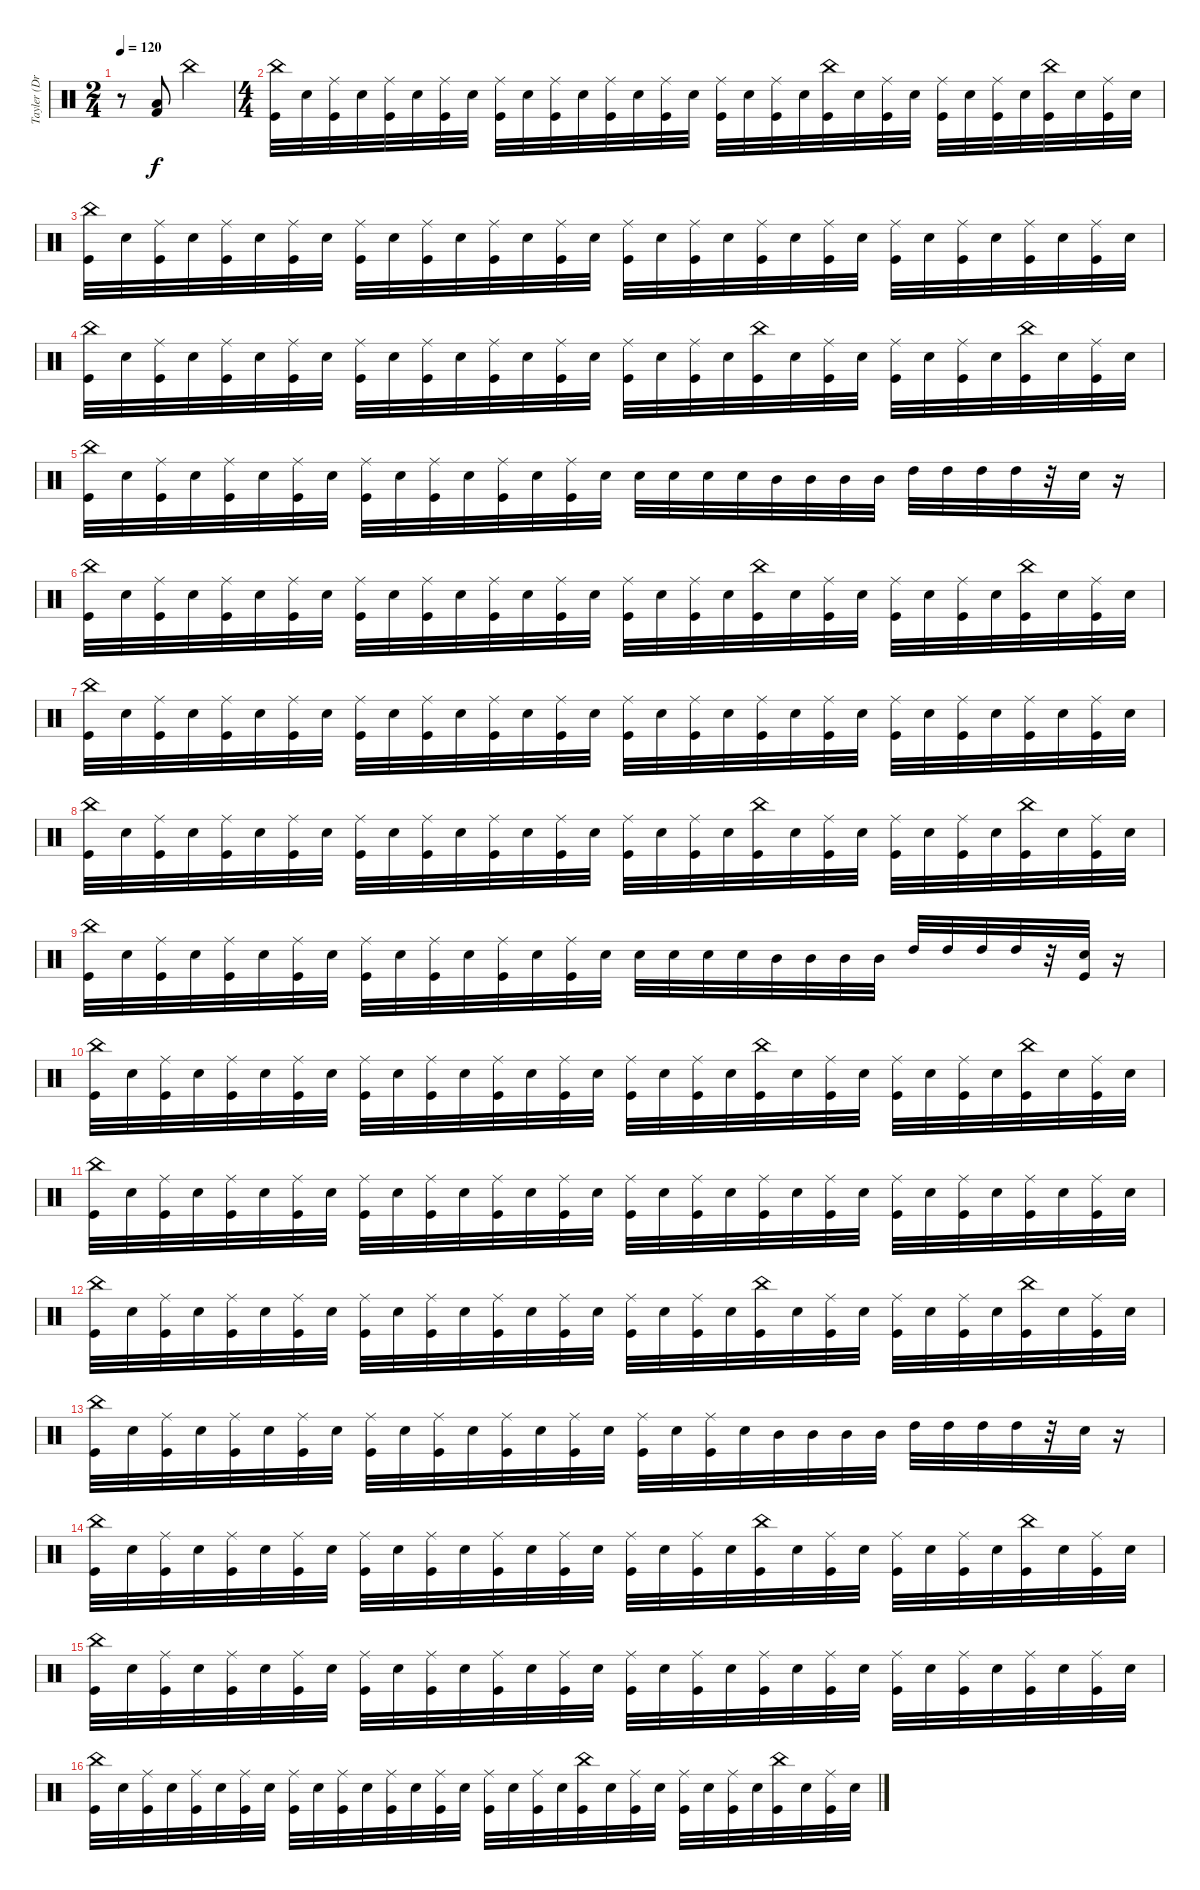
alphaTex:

\track ("Tayler (Drums)" "Tayler (Dr") {instrument percussion}
\staff {score}
\articulation defaults
\ts (2 4)
\tempo 120
\clef neutral
\ks c
r.8{dy f} ("Low Tom (hit)" "Kick (hit) 2").8 "China (hit)".4 |
\ts (4 4)
("China (hit)" "Kick (hit)").32 "Electric Snare (hit)".32 ("Ride (middle)" "Kick (hit)").32 "Electric Snare (hit)".32 ("Ride (middle)" "Kick (hit)").32 "Electric Snare (hit)".32 ("Ride (middle)" "Kick (hit)").32 "Electric Snare (hit)".32 ("Ride (middle)" "Kick (hit)").32 "Electric Snare (hit)".32 ("Ride (middle)" "Kick (hit)").32 "Electric Snare (hit)".32 ("Ride (middle)" "Kick (hit)").32 "Electric Snare (hit)".32 ("Ride (middle)" "Kick (hit)").32 "Electric Snare (hit)".32 ("Ride (middle)" "Kick (hit)").32 "Electric Snare (hit)".32 ("Ride (middle)" "Kick (hit)").32 "Electric Snare (hit)".32 ("China (hit)" "Kick (hit)").32 "Electric Snare (hit)".32 ("Ride (middle)" "Kick (hit)").32 "Electric Snare (hit)".32 ("Ride (middle)" "Kick (hit)").32 "Electric Snare (hit)".32 ("Ride (middle)" "Kick (hit)").32 "Electric Snare (hit)".32 ("China (hit)" "Kick (hit)").32 "Electric Snare (hit)".32 ("Ride (middle)" "Kick (hit)").32 "Electric Snare (hit)".32 |
("China (hit)" "Kick (hit)").32 "Electric Snare (hit)".32 ("Ride (middle)" "Kick (hit)").32 "Electric Snare (hit)".32 ("Ride (middle)" "Kick (hit)").32 "Electric Snare (hit)".32 ("Ride (middle)" "Kick (hit)").32 "Electric Snare (hit)".32 ("Ride (middle)" "Kick (hit)").32 "Electric Snare (hit)".32 ("Ride (middle)" "Kick (hit)").32 "Electric Snare (hit)".32 ("Ride (middle)" "Kick (hit)").32 "Electric Snare (hit)".32 ("Ride (middle)" "Kick (hit)").32 "Electric Snare (hit)".32 ("Ride (middle)" "Kick (hit)").32 "Electric Snare (hit)".32 ("Ride (middle)" "Kick (hit)").32 "Electric Snare (hit)".32 ("Ride (middle)" "Kick (hit)").32 "Electric Snare (hit)".32 ("Ride (middle)" "Kick (hit)").32 "Electric Snare (hit)".32 ("Ride (middle)" "Kick (hit)").32 "Electric Snare (hit)".32 ("Ride (middle)" "Kick (hit)").32 "Electric Snare (hit)".32 ("Ride (middle)" "Kick (hit)").32 "Electric Snare (hit)".32 ("Ride (middle)" "Kick (hit)").32 "Electric Snare (hit)".32 |
("China (hit)" "Kick (hit)").32 "Electric Snare (hit)".32 ("Ride (middle)" "Kick (hit)").32 "Electric Snare (hit)".32 ("Ride (middle)" "Kick (hit)").32 "Electric Snare (hit)".32 ("Ride (middle)" "Kick (hit)").32 "Electric Snare (hit)".32 ("Ride (middle)" "Kick (hit)").32 "Electric Snare (hit)".32 ("Ride (middle)" "Kick (hit)").32 "Electric Snare (hit)".32 ("Ride (middle)" "Kick (hit)").32 "Electric Snare (hit)".32 ("Ride (middle)" "Kick (hit)").32 "Electric Snare (hit)".32 ("Ride (middle)" "Kick (hit)").32 "Electric Snare (hit)".32 ("Ride (middle)" "Kick (hit)").32 "Electric Snare (hit)".32 ("China (hit)" "Kick (hit)").32 "Electric Snare (hit)".32 ("Ride (middle)" "Kick (hit)").32 "Electric Snare (hit)".32 ("Ride (middle)" "Kick (hit)").32 "Electric Snare (hit)".32 ("Ride (middle)" "Kick (hit)").32 "Electric Snare (hit)".32 ("China (hit)" "Kick (hit)").32 "Electric Snare (hit)".32 ("Ride (middle)" "Kick (hit)").32 "Electric Snare (hit)".32 |
("China (hit)" "Kick (hit)").32 "Electric Snare (hit)".32 ("Ride (middle)" "Kick (hit)").32 "Electric Snare (hit)".32 ("Ride (middle)" "Kick (hit)").32 "Electric Snare (hit)".32 ("Ride (middle)" "Kick (hit)").32 "Electric Snare (hit)".32 ("Ride (middle)" "Kick (hit)").32 "Electric Snare (hit)".32 ("Ride (middle)" "Kick (hit)").32 "Electric Snare (hit)".32 ("Ride (middle)" "Kick (hit)").32 "Electric Snare (hit)".32 ("Ride (middle)" "Kick (hit)").32 "Electric Snare (hit)".32 "Electric Snare (hit)".32 "Electric Snare (hit)".32 "Electric Snare (hit)".32 "Electric Snare (hit)".32 "Mid Tom (hit)".32 "Mid Tom (hit)".32 "Mid Tom (hit)".32 "Mid Tom (hit)".32 "High Tom (hit)".32 "High Tom (hit)".32 "High Tom (hit)".32 "High Tom (hit)".32 r.32 "Electric Snare (hit)".32 r.16 |
("China (hit)" "Kick (hit)").32 "Electric Snare (hit)".32 ("Ride (middle)" "Kick (hit)").32 "Electric Snare (hit)".32 ("Ride (middle)" "Kick (hit)").32 "Electric Snare (hit)".32 ("Ride (middle)" "Kick (hit)").32 "Electric Snare (hit)".32 ("Ride (middle)" "Kick (hit)").32 "Electric Snare (hit)".32 ("Ride (middle)" "Kick (hit)").32 "Electric Snare (hit)".32 ("Ride (middle)" "Kick (hit)").32 "Electric Snare (hit)".32 ("Ride (middle)" "Kick (hit)").32 "Electric Snare (hit)".32 ("Ride (middle)" "Kick (hit)").32 "Electric Snare (hit)".32 ("Ride (middle)" "Kick (hit)").32 "Electric Snare (hit)".32 ("China (hit)" "Kick (hit)").32 "Electric Snare (hit)".32 ("Ride (middle)" "Kick (hit)").32 "Electric Snare (hit)".32 ("Ride (middle)" "Kick (hit)").32 "Electric Snare (hit)".32 ("Ride (middle)" "Kick (hit)").32 "Electric Snare (hit)".32 ("China (hit)" "Kick (hit)").32 "Electric Snare (hit)".32 ("Ride (middle)" "Kick (hit)").32 "Electric Snare (hit)".32 |
("China (hit)" "Kick (hit)").32 "Electric Snare (hit)".32 ("Ride (middle)" "Kick (hit)").32 "Electric Snare (hit)".32 ("Ride (middle)" "Kick (hit)").32 "Electric Snare (hit)".32 ("Ride (middle)" "Kick (hit)").32 "Electric Snare (hit)".32 ("Ride (middle)" "Kick (hit)").32 "Electric Snare (hit)".32 ("Ride (middle)" "Kick (hit)").32 "Electric Snare (hit)".32 ("Ride (middle)" "Kick (hit)").32 "Electric Snare (hit)".32 ("Ride (middle)" "Kick (hit)").32 "Electric Snare (hit)".32 ("Ride (middle)" "Kick (hit)").32 "Electric Snare (hit)".32 ("Ride (middle)" "Kick (hit)").32 "Electric Snare (hit)".32 ("Ride (middle)" "Kick (hit)").32 "Electric Snare (hit)".32 ("Ride (middle)" "Kick (hit)").32 "Electric Snare (hit)".32 ("Ride (middle)" "Kick (hit)").32 "Electric Snare (hit)".32 ("Ride (middle)" "Kick (hit)").32 "Electric Snare (hit)".32 ("Ride (middle)" "Kick (hit)").32 "Electric Snare (hit)".32 ("Ride (middle)" "Kick (hit)").32 "Electric Snare (hit)".32 |
("China (hit)" "Kick (hit)").32 "Electric Snare (hit)".32 ("Ride (middle)" "Kick (hit)").32 "Electric Snare (hit)".32 ("Ride (middle)" "Kick (hit)").32 "Electric Snare (hit)".32 ("Ride (middle)" "Kick (hit)").32 "Electric Snare (hit)".32 ("Ride (middle)" "Kick (hit)").32 "Electric Snare (hit)".32 ("Ride (middle)" "Kick (hit)").32 "Electric Snare (hit)".32 ("Ride (middle)" "Kick (hit)").32 "Electric Snare (hit)".32 ("Ride (middle)" "Kick (hit)").32 "Electric Snare (hit)".32 ("Ride (middle)" "Kick (hit)").32 "Electric Snare (hit)".32 ("Ride (middle)" "Kick (hit)").32 "Electric Snare (hit)".32 ("China (hit)" "Kick (hit)").32 "Electric Snare (hit)".32 ("Ride (middle)" "Kick (hit)").32 "Electric Snare (hit)".32 ("Ride (middle)" "Kick (hit)").32 "Electric Snare (hit)".32 ("Ride (middle)" "Kick (hit)").32 "Electric Snare (hit)".32 ("China (hit)" "Kick (hit)").32 "Electric Snare (hit)".32 ("Ride (middle)" "Kick (hit)").32 "Electric Snare (hit)".32 |
("China (hit)" "Kick (hit)").32 "Electric Snare (hit)".32 ("Ride (middle)" "Kick (hit)").32 "Electric Snare (hit)".32 ("Ride (middle)" "Kick (hit)").32 "Electric Snare (hit)".32 ("Ride (middle)" "Kick (hit)").32 "Electric Snare (hit)".32 ("Ride (middle)" "Kick (hit)").32 "Electric Snare (hit)".32 ("Ride (middle)" "Kick (hit)").32 "Electric Snare (hit)".32 ("Ride (middle)" "Kick (hit)").32 "Electric Snare (hit)".32 ("Ride (middle)" "Kick (hit)").32 "Electric Snare (hit)".32 "Electric Snare (hit)".32 "Electric Snare (hit)".32 "Electric Snare (hit)".32 "Electric Snare (hit)".32 "Mid Tom (hit)".32 "Mid Tom (hit)".32 "Mid Tom (hit)".32 "Mid Tom (hit)".32 "High Tom (hit)".32 "High Tom (hit)".32 "High Tom (hit)".32 "High Tom (hit)".32 r.32 ("Electric Snare (hit)" "Kick (hit)").32 r.16 |
("China (hit)" "Kick (hit)").32 "Electric Snare (hit)".32 ("Ride (middle)" "Kick (hit)").32 "Electric Snare (hit)".32 ("Ride (middle)" "Kick (hit)").32 "Electric Snare (hit)".32 ("Ride (middle)" "Kick (hit)").32 "Electric Snare (hit)".32 ("Ride (middle)" "Kick (hit)").32 "Electric Snare (hit)".32 ("Ride (middle)" "Kick (hit)").32 "Electric Snare (hit)".32 ("Ride (middle)" "Kick (hit)").32 "Electric Snare (hit)".32 ("Ride (middle)" "Kick (hit)").32 "Electric Snare (hit)".32 ("Ride (middle)" "Kick (hit)").32 "Electric Snare (hit)".32 ("Ride (middle)" "Kick (hit)").32 "Electric Snare (hit)".32 ("China (hit)" "Kick (hit)").32 "Electric Snare (hit)".32 ("Ride (middle)" "Kick (hit)").32 "Electric Snare (hit)".32 ("Ride (middle)" "Kick (hit)").32 "Electric Snare (hit)".32 ("Ride (middle)" "Kick (hit)").32 "Electric Snare (hit)".32 ("China (hit)" "Kick (hit)").32 "Electric Snare (hit)".32 ("Ride (middle)" "Kick (hit)").32 "Electric Snare (hit)".32 |
("China (hit)" "Kick (hit)").32 "Electric Snare (hit)".32 ("Ride (middle)" "Kick (hit)").32 "Electric Snare (hit)".32 ("Ride (middle)" "Kick (hit)").32 "Electric Snare (hit)".32 ("Ride (middle)" "Kick (hit)").32 "Electric Snare (hit)".32 ("Ride (middle)" "Kick (hit)").32 "Electric Snare (hit)".32 ("Ride (middle)" "Kick (hit)").32 "Electric Snare (hit)".32 ("Ride (middle)" "Kick (hit)").32 "Electric Snare (hit)".32 ("Ride (middle)" "Kick (hit)").32 "Electric Snare (hit)".32 ("Ride (middle)" "Kick (hit)").32 "Electric Snare (hit)".32 ("Ride (middle)" "Kick (hit)").32 "Electric Snare (hit)".32 ("Ride (middle)" "Kick (hit)").32 "Electric Snare (hit)".32 ("Ride (middle)" "Kick (hit)").32 "Electric Snare (hit)".32 ("Ride (middle)" "Kick (hit)").32 "Electric Snare (hit)".32 ("Ride (middle)" "Kick (hit)").32 "Electric Snare (hit)".32 ("Ride (middle)" "Kick (hit)").32 "Electric Snare (hit)".32 ("Ride (middle)" "Kick (hit)").32 "Electric Snare (hit)".32 |
("China (hit)" "Kick (hit)").32 "Electric Snare (hit)".32 ("Ride (middle)" "Kick (hit)").32 "Electric Snare (hit)".32 ("Ride (middle)" "Kick (hit)").32 "Electric Snare (hit)".32 ("Ride (middle)" "Kick (hit)").32 "Electric Snare (hit)".32 ("Ride (middle)" "Kick (hit)").32 "Electric Snare (hit)".32 ("Ride (middle)" "Kick (hit)").32 "Electric Snare (hit)".32 ("Ride (middle)" "Kick (hit)").32 "Electric Snare (hit)".32 ("Ride (middle)" "Kick (hit)").32 "Electric Snare (hit)".32 ("Ride (middle)" "Kick (hit)").32 "Electric Snare (hit)".32 ("Ride (middle)" "Kick (hit)").32 "Electric Snare (hit)".32 ("China (hit)" "Kick (hit)").32 "Electric Snare (hit)".32 ("Ride (middle)" "Kick (hit)").32 "Electric Snare (hit)".32 ("Ride (middle)" "Kick (hit)").32 "Electric Snare (hit)".32 ("Ride (middle)" "Kick (hit)").32 "Electric Snare (hit)".32 ("China (hit)" "Kick (hit)").32 "Electric Snare (hit)".32 ("Ride (middle)" "Kick (hit)").32 "Electric Snare (hit)".32 |
("China (hit)" "Kick (hit)").32 "Electric Snare (hit)".32 ("Ride (middle)" "Kick (hit)").32 "Electric Snare (hit)".32 ("Ride (middle)" "Kick (hit)").32 "Electric Snare (hit)".32 ("Ride (middle)" "Kick (hit)").32 "Electric Snare (hit)".32 ("Ride (middle)" "Kick (hit)").32 "Electric Snare (hit)".32 ("Ride (middle)" "Kick (hit)").32 "Electric Snare (hit)".32 ("Ride (middle)" "Kick (hit)").32 "Electric Snare (hit)".32 ("Ride (middle)" "Kick (hit)").32 "Electric Snare (hit)".32 ("Ride (middle)" "Kick (hit)").32 "Electric Snare (hit)".32 ("Ride (middle)" "Kick (hit)").32 "Electric Snare (hit)".32 "Mid Tom (hit)".32 "Mid Tom (hit)".32 "Mid Tom (hit)".32 "Mid Tom (hit)".32 "High Tom (hit)".32 "High Tom (hit)".32 "High Tom (hit)".32 "High Tom (hit)".32 r.32 "Electric Snare (hit)".32 r.16 |
("China (hit)" "Kick (hit)").32 "Electric Snare (hit)".32 ("Ride (middle)" "Kick (hit)").32 "Electric Snare (hit)".32 ("Ride (middle)" "Kick (hit)").32 "Electric Snare (hit)".32 ("Ride (middle)" "Kick (hit)").32 "Electric Snare (hit)".32 ("Ride (middle)" "Kick (hit)").32 "Electric Snare (hit)".32 ("Ride (middle)" "Kick (hit)").32 "Electric Snare (hit)".32 ("Ride (middle)" "Kick (hit)").32 "Electric Snare (hit)".32 ("Ride (middle)" "Kick (hit)").32 "Electric Snare (hit)".32 ("Ride (middle)" "Kick (hit)").32 "Electric Snare (hit)".32 ("Ride (middle)" "Kick (hit)").32 "Electric Snare (hit)".32 ("China (hit)" "Kick (hit)").32 "Electric Snare (hit)".32 ("Ride (middle)" "Kick (hit)").32 "Electric Snare (hit)".32 ("Ride (middle)" "Kick (hit)").32 "Electric Snare (hit)".32 ("Ride (middle)" "Kick (hit)").32 "Electric Snare (hit)".32 ("China (hit)" "Kick (hit)").32 "Electric Snare (hit)".32 ("Ride (middle)" "Kick (hit)").32 "Electric Snare (hit)".32 |
("China (hit)" "Kick (hit)").32 "Electric Snare (hit)".32 ("Ride (middle)" "Kick (hit)").32 "Electric Snare (hit)".32 ("Ride (middle)" "Kick (hit)").32 "Electric Snare (hit)".32 ("Ride (middle)" "Kick (hit)").32 "Electric Snare (hit)".32 ("Ride (middle)" "Kick (hit)").32 "Electric Snare (hit)".32 ("Ride (middle)" "Kick (hit)").32 "Electric Snare (hit)".32 ("Ride (middle)" "Kick (hit)").32 "Electric Snare (hit)".32 ("Ride (middle)" "Kick (hit)").32 "Electric Snare (hit)".32 ("Ride (middle)" "Kick (hit)").32 "Electric Snare (hit)".32 ("Ride (middle)" "Kick (hit)").32 "Electric Snare (hit)".32 ("Ride (middle)" "Kick (hit)").32 "Electric Snare (hit)".32 ("Ride (middle)" "Kick (hit)").32 "Electric Snare (hit)".32 ("Ride (middle)" "Kick (hit)").32 "Electric Snare (hit)".32 ("Ride (middle)" "Kick (hit)").32 "Electric Snare (hit)".32 ("Ride (middle)" "Kick (hit)").32 "Electric Snare (hit)".32 ("Ride (middle)" "Kick (hit)").32 "Electric Snare (hit)".32 |
("China (hit)" "Kick (hit)").32 "Electric Snare (hit)".32 ("Ride (middle)" "Kick (hit)").32 "Electric Snare (hit)".32 ("Ride (middle)" "Kick (hit)").32 "Electric Snare (hit)".32 ("Ride (middle)" "Kick (hit)").32 "Electric Snare (hit)".32 ("Ride (middle)" "Kick (hit)").32 "Electric Snare (hit)".32 ("Ride (middle)" "Kick (hit)").32 "Electric Snare (hit)".32 ("Ride (middle)" "Kick (hit)").32 "Electric Snare (hit)".32 ("Ride (middle)" "Kick (hit)").32 "Electric Snare (hit)".32 ("Ride (middle)" "Kick (hit)").32 "Electric Snare (hit)".32 ("Ride (middle)" "Kick (hit)").32 "Electric Snare (hit)".32 ("China (hit)" "Kick (hit)").32 "Electric Snare (hit)".32 ("Ride (middle)" "Kick (hit)").32 "Electric Snare (hit)".32 ("Ride (middle)" "Kick (hit)").32 "Electric Snare (hit)".32 ("Ride (middle)" "Kick (hit)").32 "Electric Snare (hit)".32 ("China (hit)" "Kick (hit)").32 "Electric Snare (hit)".32 ("Ride (middle)" "Kick (hit)").32 "Electric Snare (hit)".32
